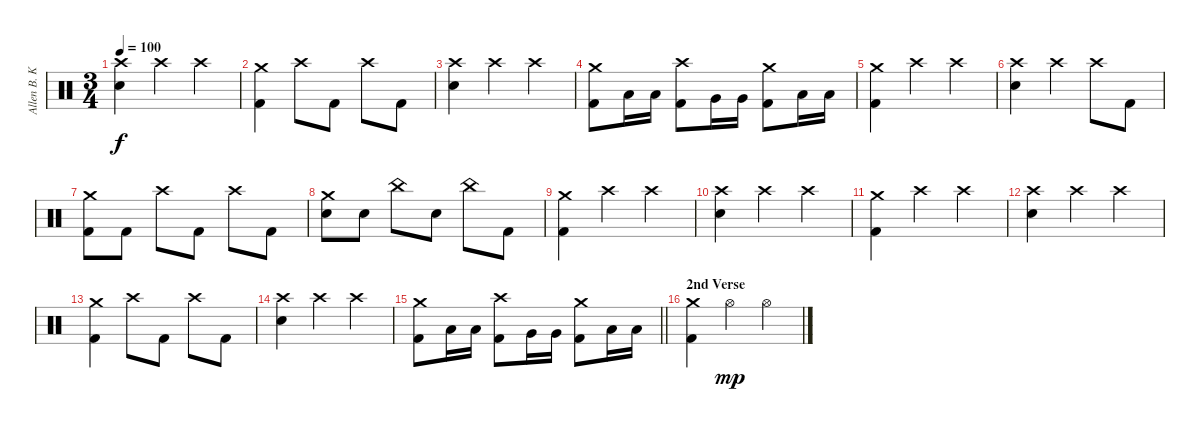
\track ("Allen B. Konstanz (Drums)" "Allen B. K") {instrument percussion}
\staff {score}
\articulation defaults
\ts (3 4)
\tempo 100
\clef neutral
\ks c
("Crash high (hit)" "Snare (hit) 2").4{dy f} "Crash high (hit)".4 "Crash high (hit)".4 |
("Crash medium (hit)" "Kick (hit) 2").4 "Crash high (hit)".8 "Kick (hit) 2".8 "Crash high (hit)".8 "Kick (hit) 2".8 |
("Crash high (hit)" "Snare (hit) 2").4 "Crash high (hit)".4 "Crash high (hit)".4 |
("Crash medium (hit)" "Kick (hit) 2").8 "Low Tom (hit)".16 "Low Tom (hit)".16 ("Crash high (hit)" "Kick (hit) 2").8 "Very Low Tom (hit)".16 "Very Low Tom (hit)".16 ("Crash medium (hit)" "Kick (hit) 2").8 "Low Floor Tom (hit)".16 "Low Floor Tom (hit)".16 |
("Crash medium (hit)" "Kick (hit) 2").4 "Crash high (hit)".4 "Crash high (hit)".4 |
("Crash high (hit)" "Snare (hit) 2").4 "Crash high (hit)".4 "Crash high (hit)".8 "Kick (hit) 2".8 |
("Crash medium (hit)" "Kick (hit) 2").8 "Kick (hit) 2".8 "Crash high (hit)".8 "Kick (hit) 2".8 "Crash high (hit)".8 "Kick (hit) 2".8 |
("Crash medium (hit)" "Snare (hit) 2").8 "Snare (hit) 2".8 "China (hit)".8 "Snare (hit) 2".8 "China (hit)".8 "Kick (hit) 2".8 |
("Crash medium (hit)" "Kick (hit) 2").4 "Crash high (hit)".4 "Crash high (hit)".4 |
("Crash high (hit)" "Snare (hit) 2").4 "Crash high (hit)".4 "Crash high (hit)".4 |
("Crash medium (hit)" "Kick (hit) 2").4 "Crash high (hit)".4 "Crash high (hit)".4 |
("Crash high (hit)" "Snare (hit) 2").4 "Crash high (hit)".4 "Crash high (hit)".4 |
("Crash medium (hit)" "Kick (hit) 2").4 "Crash high (hit)".8 "Kick (hit) 2".8 "Crash high (hit)".8 "Kick (hit) 2".8 |
("Crash high (hit)" "Snare (hit) 2").4 "Crash high (hit)".4 "Crash high (hit)".4 |
\barLineRight lightlight
("Crash medium (hit)" "Kick (hit) 2").8 "Low Tom (hit)".16 "Low Tom (hit)".16 ("Crash high (hit)" "Kick (hit) 2").8 "Very Low Tom (hit)".16 "Very Low Tom (hit)".16 ("Crash medium (hit)" "Kick (hit) 2").8 "Low Floor Tom (hit)".16 "Low Floor Tom (hit)".16 |
\section ("" "2nd Verse")
("Crash medium (hit)" "Kick (hit) 2").4 "Hi-Hat (open)".4{dy mp} "Hi-Hat (open)".4
